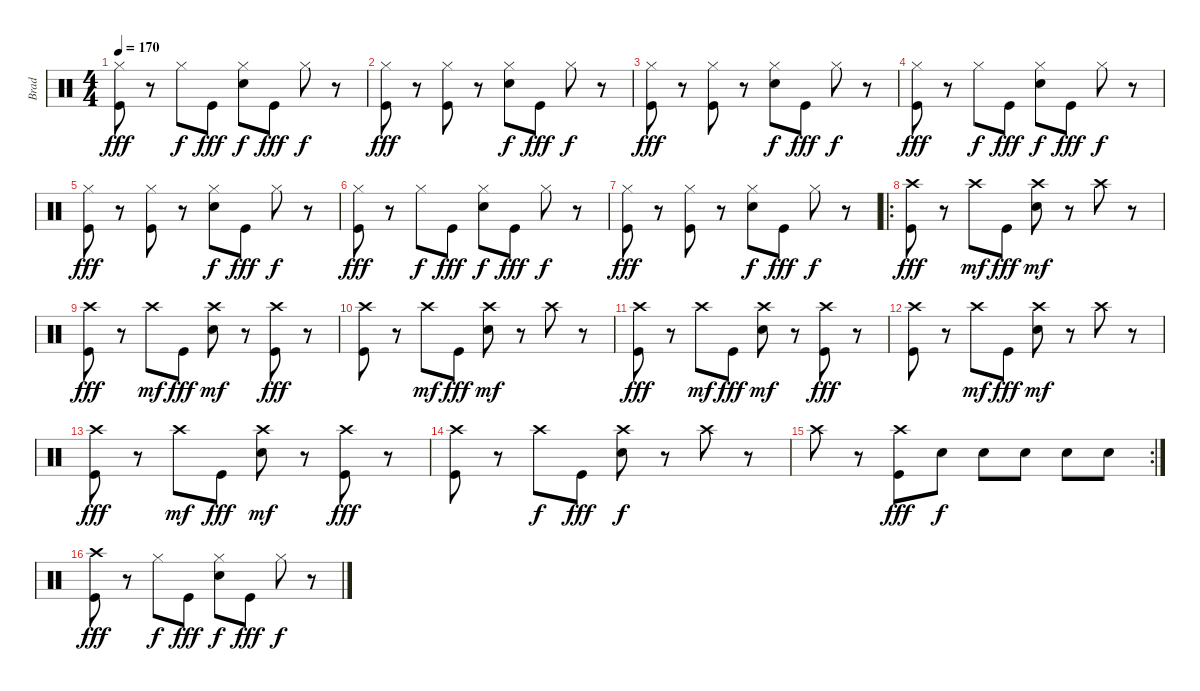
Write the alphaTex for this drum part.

\track ("Brad" "Brad") {instrument percussion}
\staff {score}
\articulation defaults
\ts (4 4)
\tempo 170
\clef neutral
\ks c
("Hi-Hat (closed)" "Kick (hit)").8{dy fff} r.8 "Hi-Hat (closed)".8{dy f} "Kick (hit)".8{dy fff} ("Hi-Hat (closed)" "Electric Snare (hit)").8{dy f} "Kick (hit)".8{dy fff} "Hi-Hat (closed)".8{dy f} r.8 |
("Hi-Hat (closed)" "Kick (hit)").8{dy fff} r.8 ("Hi-Hat (closed)" "Kick (hit)").8 r.8 ("Hi-Hat (closed)" "Electric Snare (hit)").8{dy f} "Kick (hit)".8{dy fff} "Hi-Hat (closed)".8{dy f} r.8 |
("Hi-Hat (closed)" "Kick (hit)").8{dy fff} r.8 ("Hi-Hat (closed)" "Kick (hit)").8 r.8 ("Hi-Hat (closed)" "Electric Snare (hit)").8{dy f} "Kick (hit)".8{dy fff} "Hi-Hat (closed)".8{dy f} r.8 |
("Hi-Hat (closed)" "Kick (hit)").8{dy fff} r.8 "Hi-Hat (closed)".8{dy f} "Kick (hit)".8{dy fff} ("Hi-Hat (closed)" "Electric Snare (hit)").8{dy f} "Kick (hit)".8{dy fff} "Hi-Hat (closed)".8{dy f} r.8 |
("Hi-Hat (closed)" "Kick (hit)").8{dy fff} r.8 ("Hi-Hat (closed)" "Kick (hit)").8 r.8 ("Hi-Hat (closed)" "Electric Snare (hit)").8{dy f} "Kick (hit)".8{dy fff} "Hi-Hat (closed)".8{dy f} r.8 |
("Hi-Hat (closed)" "Kick (hit)").8{dy fff} r.8 "Hi-Hat (closed)".8{dy f} "Kick (hit)".8{dy fff} ("Hi-Hat (closed)" "Electric Snare (hit)").8{dy f} "Kick (hit)".8{dy fff} "Hi-Hat (closed)".8{dy f} r.8 |
("Hi-Hat (closed)" "Kick (hit)").8{dy fff} r.8 ("Hi-Hat (closed)" "Kick (hit)").8 r.8 ("Hi-Hat (closed)" "Electric Snare (hit)").8{dy f} "Kick (hit)".8{dy fff} "Hi-Hat (closed)".8{dy f} r.8 |
\ro
("Crash high (hit)" "Kick (hit)").8{dy fff} r.8 "Crash high (hit)".8{dy mf} "Kick (hit)".8{dy fff} ("Crash high (hit)" "Electric Snare (hit)").8{dy mf} r.8 "Crash high (hit)".8 r.8 |
("Crash high (hit)" "Kick (hit)").8{dy fff} r.8 "Crash high (hit)".8{dy mf} "Kick (hit)".8{dy fff} ("Crash high (hit)" "Electric Snare (hit)").8{dy mf} r.8 ("Crash high (hit)" "Kick (hit)").8{dy fff} r.8 |
("Crash high (hit)" "Kick (hit)").8 r.8 "Crash high (hit)".8{dy mf} "Kick (hit)".8{dy fff} ("Crash high (hit)" "Electric Snare (hit)").8{dy mf} r.8 "Crash high (hit)".8 r.8 |
("Crash high (hit)" "Kick (hit)").8{dy fff} r.8 "Crash high (hit)".8{dy mf} "Kick (hit)".8{dy fff} ("Crash high (hit)" "Electric Snare (hit)").8{dy mf} r.8 ("Crash high (hit)" "Kick (hit)").8{dy fff} r.8 |
("Crash high (hit)" "Kick (hit)").8 r.8 "Crash high (hit)".8{dy mf} "Kick (hit)".8{dy fff} ("Crash high (hit)" "Electric Snare (hit)").8{dy mf} r.8 "Crash high (hit)".8 r.8 |
("Crash high (hit)" "Kick (hit)").8{dy fff} r.8 "Crash high (hit)".8{dy mf} "Kick (hit)".8{dy fff} ("Crash high (hit)" "Electric Snare (hit)").8{dy mf} r.8 ("Crash high (hit)" "Kick (hit)").8{dy fff} r.8 |
("Crash high (hit)" "Kick (hit)").8 r.8 "Crash high (hit)".8{dy f} "Kick (hit)".8{dy fff} ("Crash high (hit)" "Electric Snare (hit)").8{dy f} r.8 "Crash high (hit)".8 r.8 |
\rc 2 "Crash high (hit)".8
r.8 ("Crash high (hit)" "Kick (hit)").8{dy fff} "Electric Snare (hit)".8{dy f} "Electric Snare (hit)".8 "Electric Snare (hit)".8 "Electric Snare (hit)".8 "Electric Snare (hit)".8 |
("Crash high (hit)" "Kick (hit)").8{dy fff} r.8 "Hi-Hat (closed)".8{dy f} "Kick (hit)".8{dy fff} ("Hi-Hat (closed)" "Electric Snare (hit)").8{dy f} "Kick (hit)".8{dy fff} "Hi-Hat (closed)".8{dy f} r.8
